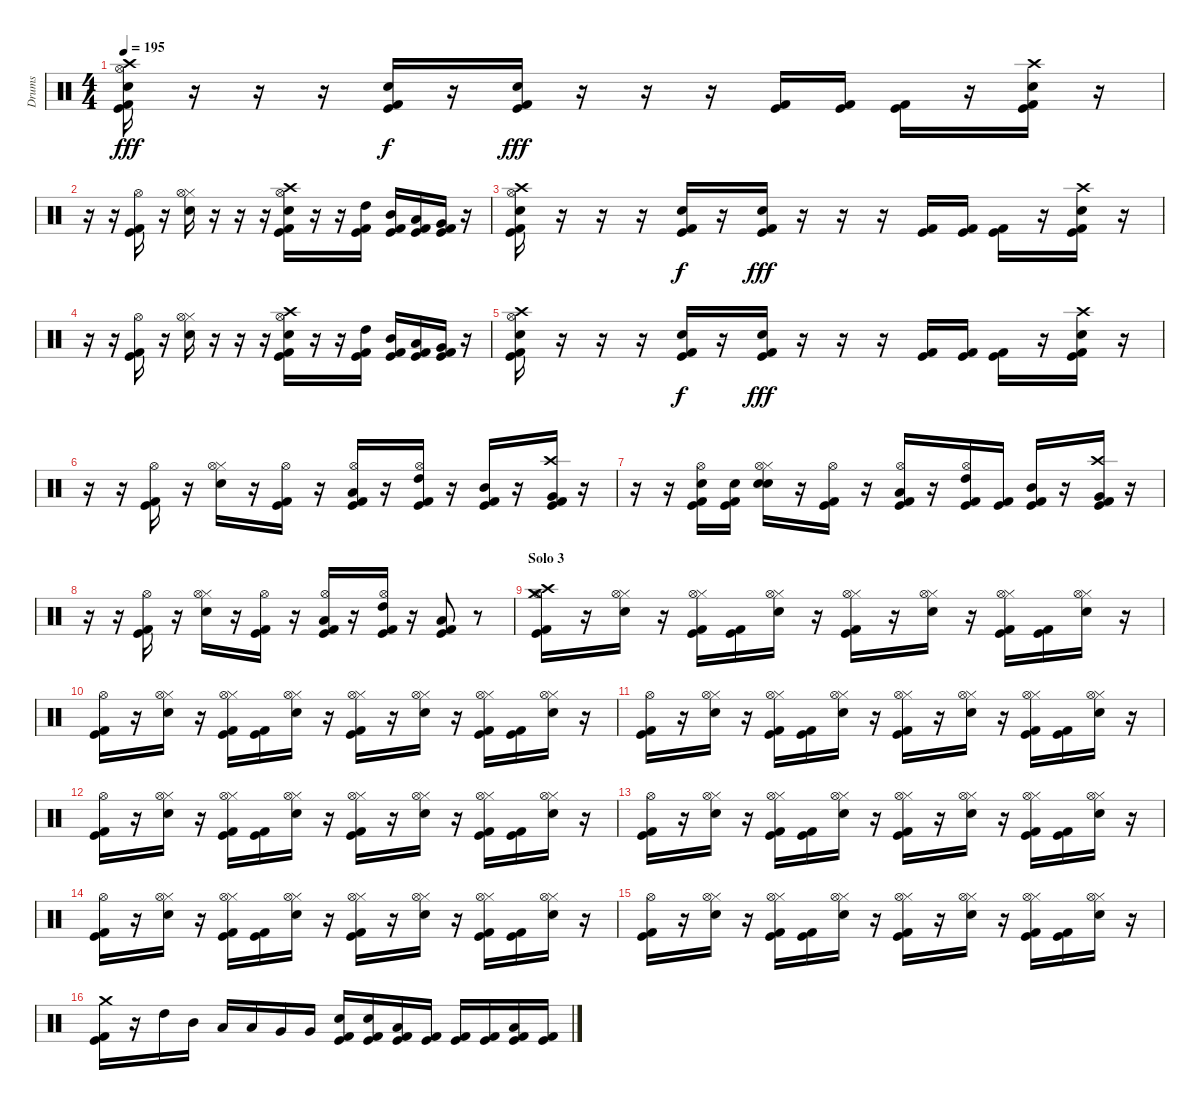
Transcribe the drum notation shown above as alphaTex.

\track ("Drums" "Drums") {instrument percussion}
\staff {score}
\articulation defaults
\ts (4 4)
\tempo 195
\clef neutral
\ks c
("Kick (hit) 2" "Kick (hit)" "Snare (hit) 2" "Crash high (hit)" "Hi-Hat (open)").16{dy fff} r.16 r.16 r.16 ("Kick (hit) 2" "Kick (hit)" "Snare (hit) 2").16{dy f} r.16 ("Kick (hit) 2" "Kick (hit)" "Electric Snare (hit)").16{dy fff} r.16 r.16 r.16 ("Kick (hit) 2" "Kick (hit)").16 ("Kick (hit) 2" "Kick (hit)").16 ("Kick (hit) 2" "Kick (hit)").16 r.16 ("Kick (hit) 2" "Kick (hit)" "Snare (hit) 2" "Crash high (hit)").16 r.16 |
r.16 r.16 ("Kick (hit) 2" "Kick (hit)" "Hi-Hat (open)").16 r.16 ("Snare (hit) 2" "Hi-Hat (closed)" "Hi-Hat (open)").16 r.16 r.16 r.16 ("Kick (hit) 2" "Kick (hit)" "Snare (hit) 2" "Crash high (hit)" "Hi-Hat (open)").16 r.16 r.16 ("Kick (hit) 2" "Kick (hit)" "High Tom (hit)").16 ("Kick (hit) 2" "Kick (hit)" "Mid Tom (hit)").16 ("Kick (hit) 2" "Kick (hit)" "Low Tom (hit)").16 ("Kick (hit) 2" "Kick (hit)" "Very Low Tom (hit)").16 r.16 |
("Kick (hit) 2" "Kick (hit)" "Snare (hit) 2" "Crash high (hit)" "Hi-Hat (open)").16 r.16 r.16 r.16 ("Kick (hit) 2" "Kick (hit)" "Snare (hit) 2").16{dy f} r.16 ("Kick (hit) 2" "Kick (hit)" "Electric Snare (hit)").16{dy fff} r.16 r.16 r.16 ("Kick (hit) 2" "Kick (hit)").16 ("Kick (hit) 2" "Kick (hit)").16 ("Kick (hit) 2" "Kick (hit)").16 r.16 ("Kick (hit) 2" "Kick (hit)" "Snare (hit) 2" "Crash high (hit)").16 r.16 |
r.16 r.16 ("Kick (hit) 2" "Kick (hit)" "Hi-Hat (open)").16 r.16 ("Snare (hit) 2" "Hi-Hat (closed)" "Hi-Hat (open)").16 r.16 r.16 r.16 ("Kick (hit) 2" "Kick (hit)" "Snare (hit) 2" "Crash high (hit)" "Hi-Hat (open)").16 r.16 r.16 ("Kick (hit) 2" "Kick (hit)" "High Tom (hit)").16 ("Kick (hit) 2" "Kick (hit)" "Mid Tom (hit)").16 ("Kick (hit) 2" "Kick (hit)" "Low Tom (hit)").16 ("Kick (hit) 2" "Kick (hit)" "Very Low Tom (hit)").16 r.16 |
("Kick (hit) 2" "Kick (hit)" "Snare (hit) 2" "Crash high (hit)" "Hi-Hat (open)").16 r.16 r.16 r.16 ("Kick (hit) 2" "Kick (hit)" "Snare (hit) 2").16{dy f} r.16 ("Kick (hit) 2" "Kick (hit)" "Electric Snare (hit)").16{dy fff} r.16 r.16 r.16 ("Kick (hit) 2" "Kick (hit)").16 ("Kick (hit) 2" "Kick (hit)").16 ("Kick (hit) 2" "Kick (hit)").16 r.16 ("Kick (hit) 2" "Kick (hit)" "Snare (hit) 2" "Crash high (hit)").16 r.16 |
r.16 r.16 ("Kick (hit) 2" "Kick (hit)" "Hi-Hat (open)").16 r.16 ("Snare (hit) 2" "Hi-Hat (closed)" "Hi-Hat (open)").16 r.16 ("Kick (hit) 2" "Kick (hit)" "Hi-Hat (open)").16 r.16 ("Kick (hit) 2" "Kick (hit)" "Low Floor Tom (hit)" "Hi-Hat (open)").16 r.16 ("Kick (hit) 2" "Kick (hit)" "High Tom (hit)" "Hi-Hat (open)").16 r.16 ("Kick (hit) 2" "Kick (hit)" "Mid Tom (hit)").16 r.16 ("Kick (hit) 2" "Kick (hit)" "Very Low Tom (hit)" "Crash high (hit)").16 r.16 |
r.16 r.16 ("Kick (hit) 2" "Kick (hit)" "Snare (hit) 2" "Hi-Hat (open)").16 ("Kick (hit) 2" "Kick (hit)" "Snare (hit) 2").16 ("Snare (hit) 2" "Hi-Hat (closed)" "Electric Snare (hit)" "Hi-Hat (open)").16 r.16 ("Kick (hit) 2" "Kick (hit)" "Hi-Hat (open)").16 r.16 ("Kick (hit) 2" "Kick (hit)" "Low Floor Tom (hit)" "Hi-Hat (open)").16 r.16 ("Kick (hit) 2" "Kick (hit)" "High Tom (hit)" "Hi-Hat (open)").16 ("Kick (hit) 2" "Kick (hit)").16 ("Kick (hit) 2" "Kick (hit)" "Mid Tom (hit)").16 r.16 ("Kick (hit) 2" "Kick (hit)" "Very Low Tom (hit)" "Crash high (hit)").16 r.16 |
r.16 r.16 ("Kick (hit) 2" "Kick (hit)" "Hi-Hat (open)").16 r.16 ("Snare (hit) 2" "Hi-Hat (closed)" "Hi-Hat (open)").16 r.16 ("Kick (hit) 2" "Kick (hit)" "Hi-Hat (open)").16 r.16 ("Kick (hit) 2" "Kick (hit)" "Low Floor Tom (hit)" "Hi-Hat (open)").16 r.16 ("Kick (hit) 2" "Kick (hit)" "High Tom (hit)" "Hi-Hat (open)").16 r.16 ("Kick (hit) 2" "Kick (hit)" "Low Floor Tom (hit)").8 r.8 |
\section ("" "Solo 3")
("Kick (hit) 2" "Kick (hit)" "Crash high (hit)" "Hi-Hat (open)" "Crash medium (hit)").16 r.16 ("Snare (hit) 2" "Hi-Hat (closed)" "Hi-Hat (open)").16 r.16 ("Kick (hit) 2" "Kick (hit)" "Hi-Hat (closed)" "Hi-Hat (open)").16 ("Kick (hit) 2" "Kick (hit)").16 ("Snare (hit) 2" "Hi-Hat (closed)" "Hi-Hat (open)").16 r.16 ("Kick (hit) 2" "Kick (hit)" "Hi-Hat (closed)" "Hi-Hat (open)").16 r.16 ("Snare (hit) 2" "Hi-Hat (closed)" "Hi-Hat (open)").16 r.16 ("Kick (hit) 2" "Kick (hit)" "Hi-Hat (closed)" "Hi-Hat (open)").16 ("Kick (hit) 2" "Kick (hit)").16 ("Snare (hit) 2" "Hi-Hat (closed)" "Hi-Hat (open)").16 r.16 |
("Kick (hit) 2" "Kick (hit)" "Hi-Hat (open)").16 r.16 ("Snare (hit) 2" "Hi-Hat (closed)" "Hi-Hat (open)").16 r.16 ("Kick (hit) 2" "Kick (hit)" "Hi-Hat (closed)" "Hi-Hat (open)").16 ("Kick (hit) 2" "Kick (hit)").16 ("Snare (hit) 2" "Hi-Hat (closed)" "Hi-Hat (open)").16 r.16 ("Kick (hit) 2" "Kick (hit)" "Hi-Hat (closed)" "Hi-Hat (open)").16 r.16 ("Snare (hit) 2" "Hi-Hat (closed)" "Hi-Hat (open)").16 r.16 ("Kick (hit) 2" "Kick (hit)" "Hi-Hat (closed)" "Hi-Hat (open)").16 ("Kick (hit) 2" "Kick (hit)").16 ("Snare (hit) 2" "Hi-Hat (closed)" "Hi-Hat (open)").16 r.16 |
("Kick (hit) 2" "Kick (hit)" "Hi-Hat (open)").16 r.16 ("Snare (hit) 2" "Hi-Hat (closed)" "Hi-Hat (open)").16 r.16 ("Kick (hit) 2" "Kick (hit)" "Hi-Hat (closed)" "Hi-Hat (open)").16 ("Kick (hit) 2" "Kick (hit)").16 ("Snare (hit) 2" "Hi-Hat (closed)" "Hi-Hat (open)").16 r.16 ("Kick (hit) 2" "Kick (hit)" "Hi-Hat (closed)" "Hi-Hat (open)").16 r.16 ("Snare (hit) 2" "Hi-Hat (closed)" "Hi-Hat (open)").16 r.16 ("Kick (hit) 2" "Kick (hit)" "Hi-Hat (closed)" "Hi-Hat (open)").16 ("Kick (hit) 2" "Kick (hit)").16 ("Snare (hit) 2" "Hi-Hat (closed)" "Hi-Hat (open)").16 r.16 |
("Kick (hit) 2" "Kick (hit)" "Hi-Hat (open)").16 r.16 ("Snare (hit) 2" "Hi-Hat (closed)" "Hi-Hat (open)").16 r.16 ("Kick (hit) 2" "Kick (hit)" "Hi-Hat (closed)" "Hi-Hat (open)").16 ("Kick (hit) 2" "Kick (hit)").16 ("Snare (hit) 2" "Hi-Hat (closed)" "Hi-Hat (open)").16 r.16 ("Kick (hit) 2" "Kick (hit)" "Hi-Hat (closed)" "Hi-Hat (open)").16 r.16 ("Snare (hit) 2" "Hi-Hat (closed)" "Hi-Hat (open)").16 r.16 ("Kick (hit) 2" "Kick (hit)" "Hi-Hat (closed)" "Hi-Hat (open)").16 ("Kick (hit) 2" "Kick (hit)").16 ("Snare (hit) 2" "Hi-Hat (closed)" "Hi-Hat (open)").16 r.16 |
("Kick (hit) 2" "Kick (hit)" "Hi-Hat (open)").16 r.16 ("Snare (hit) 2" "Hi-Hat (closed)" "Hi-Hat (open)").16 r.16 ("Kick (hit) 2" "Kick (hit)" "Hi-Hat (closed)" "Hi-Hat (open)").16 ("Kick (hit) 2" "Kick (hit)").16 ("Snare (hit) 2" "Hi-Hat (closed)" "Hi-Hat (open)").16 r.16 ("Kick (hit) 2" "Kick (hit)" "Hi-Hat (closed)" "Hi-Hat (open)").16 r.16 ("Snare (hit) 2" "Hi-Hat (closed)" "Hi-Hat (open)").16 r.16 ("Kick (hit) 2" "Kick (hit)" "Hi-Hat (closed)" "Hi-Hat (open)").16 ("Kick (hit) 2" "Kick (hit)").16 ("Snare (hit) 2" "Hi-Hat (closed)" "Hi-Hat (open)").16 r.16 |
("Kick (hit) 2" "Kick (hit)" "Hi-Hat (open)").16 r.16 ("Snare (hit) 2" "Hi-Hat (closed)" "Hi-Hat (open)").16 r.16 ("Kick (hit) 2" "Kick (hit)" "Hi-Hat (closed)" "Hi-Hat (open)").16 ("Kick (hit) 2" "Kick (hit)").16 ("Snare (hit) 2" "Hi-Hat (closed)" "Hi-Hat (open)").16 r.16 ("Kick (hit) 2" "Kick (hit)" "Hi-Hat (closed)" "Hi-Hat (open)").16 r.16 ("Snare (hit) 2" "Hi-Hat (closed)" "Hi-Hat (open)").16 r.16 ("Kick (hit) 2" "Kick (hit)" "Hi-Hat (closed)" "Hi-Hat (open)").16 ("Kick (hit) 2" "Kick (hit)").16 ("Snare (hit) 2" "Hi-Hat (closed)" "Hi-Hat (open)").16 r.16 |
("Kick (hit) 2" "Kick (hit)" "Hi-Hat (open)").16 r.16 ("Snare (hit) 2" "Hi-Hat (closed)" "Hi-Hat (open)").16 r.16 ("Kick (hit) 2" "Kick (hit)" "Hi-Hat (closed)" "Hi-Hat (open)").16 ("Kick (hit) 2" "Kick (hit)").16 ("Snare (hit) 2" "Hi-Hat (closed)" "Hi-Hat (open)").16 r.16 ("Kick (hit) 2" "Kick (hit)" "Hi-Hat (closed)" "Hi-Hat (open)").16 r.16 ("Snare (hit) 2" "Hi-Hat (closed)" "Hi-Hat (open)").16 r.16 ("Kick (hit) 2" "Kick (hit)" "Hi-Hat (closed)" "Hi-Hat (open)").16 ("Kick (hit) 2" "Kick (hit)").16 ("Snare (hit) 2" "Hi-Hat (closed)" "Hi-Hat (open)").16 r.16 |
("Kick (hit) 2" "Kick (hit)" "Crash medium (hit)").16 r.16 "High Tom (hit)".16 "Mid Tom (hit)".16 "Low Tom (hit)".16 "Low Tom (hit)".16 "Very Low Tom (hit)".16 "Very Low Tom (hit)".16 ("Kick (hit) 2" "Kick (hit)" "Snare (hit) 2").16 ("Kick (hit) 2" "Kick (hit)" "Snare (hit) 2").16 ("Kick (hit) 2" "Kick (hit)" "Low Tom (hit)").16 ("Kick (hit) 2" "Kick (hit)").16 ("Kick (hit) 2" "Kick (hit)").16 ("Kick (hit) 2" "Kick (hit)").16 ("Kick (hit) 2" "Kick (hit)" "Low Floor Tom (hit)").16 ("Kick (hit) 2" "Kick (hit)").16
